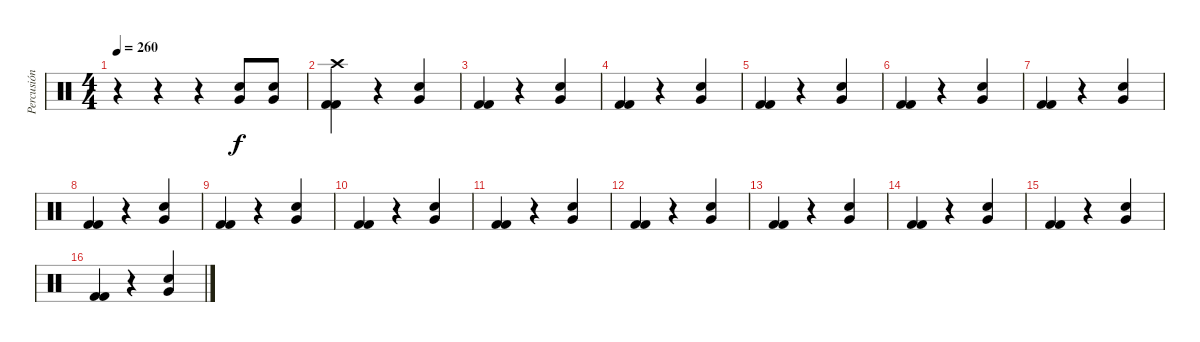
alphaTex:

\track ("Percusión" "Percusión") {instrument percussion}
\staff {score}
\articulation defaults
\ts (4 4)
\tempo 260
\clef neutral
\ks c
r.4{dy f} r.4 r.4 ("Very Low Tom (hit)" "Electric Snare (hit)").8 ("Very Low Tom (hit)" "Electric Snare (hit)").8 |
("Crash high (hit)" "Kick (hit) 2" "Kick (hit) 2").4 r.4 ("Very Low Tom (hit)" "Electric Snare (hit)").4 |
("Kick (hit) 2" "Kick (hit) 2").4 r.4 ("Very Low Tom (hit)" "Electric Snare (hit)").4 |
("Kick (hit) 2" "Kick (hit) 2").4 r.4 ("Very Low Tom (hit)" "Electric Snare (hit)").4 |
("Kick (hit) 2" "Kick (hit) 2").4 r.4 ("Very Low Tom (hit)" "Electric Snare (hit)").4 |
("Kick (hit) 2" "Kick (hit) 2").4 r.4 ("Very Low Tom (hit)" "Electric Snare (hit)").4 |
("Kick (hit) 2" "Kick (hit) 2").4 r.4 ("Very Low Tom (hit)" "Electric Snare (hit)").4 |
("Kick (hit) 2" "Kick (hit) 2").4 r.4 ("Very Low Tom (hit)" "Electric Snare (hit)").4 |
("Kick (hit) 2" "Kick (hit) 2").4 r.4 ("Very Low Tom (hit)" "Electric Snare (hit)").4 |
("Kick (hit) 2" "Kick (hit) 2").4 r.4 ("Very Low Tom (hit)" "Electric Snare (hit)").4 |
("Kick (hit) 2" "Kick (hit) 2").4 r.4 ("Very Low Tom (hit)" "Electric Snare (hit)").4 |
("Kick (hit) 2" "Kick (hit) 2").4 r.4 ("Very Low Tom (hit)" "Electric Snare (hit)").4 |
("Kick (hit) 2" "Kick (hit) 2").4 r.4 ("Very Low Tom (hit)" "Electric Snare (hit)").4 |
("Kick (hit) 2" "Kick (hit) 2").4 r.4 ("Very Low Tom (hit)" "Electric Snare (hit)").4 |
("Kick (hit) 2" "Kick (hit) 2").4 r.4 ("Very Low Tom (hit)" "Electric Snare (hit)").4 |
("Kick (hit) 2" "Kick (hit) 2").4 r.4 ("Very Low Tom (hit)" "Electric Snare (hit)").4
